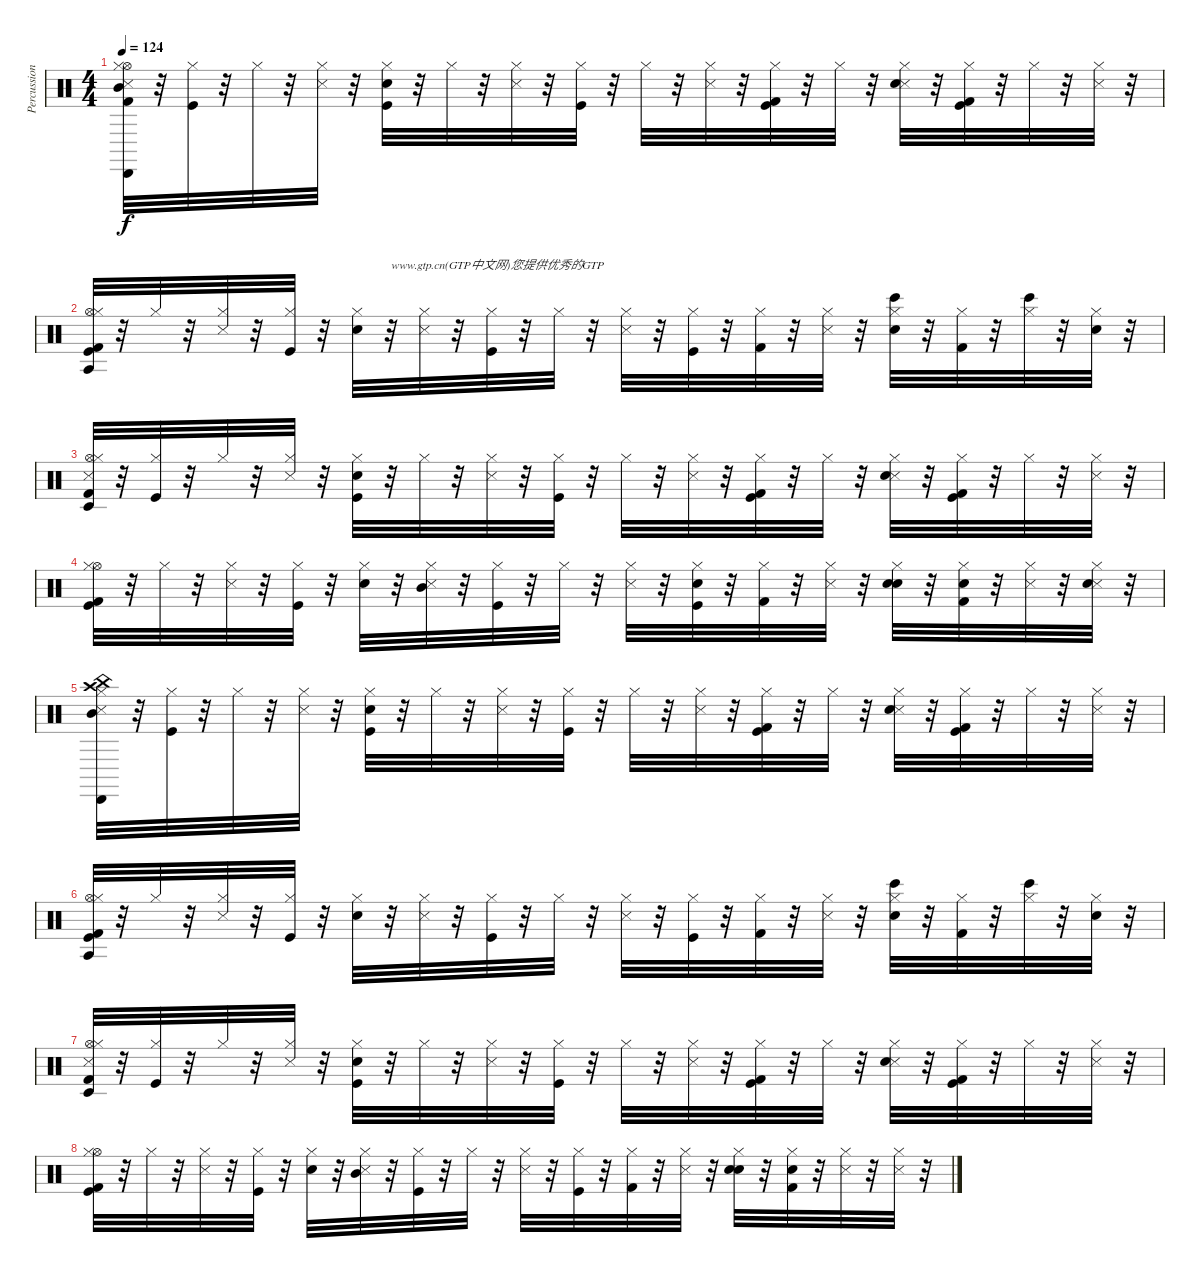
\track ("Percussions" "Percussion") {instrument percussion}
\staff {score}
\articulation defaults
\ts (4 4)
\tempo 124
\clef neutral
\ks c
("Mid Tom (hit)" "Cabasa (hit)" "Metronome (hit)" "Hi-Hat (open)" "Kick (hit) 2" "Hi-Hat (closed)").32{dy f} r.32 ("Kick (hit)" "Hi-Hat (closed)").32 r.32 "Hi-Hat (closed)".32 r.32 ("Metronome (hit)" "Hi-Hat (closed)").32 r.32 ("Kick (hit)" "Hi-Hat (closed)" "Electric Snare (hit)").32 r.32 "Hi-Hat (closed)".32 r.32 ("Metronome (hit)" "Hi-Hat (closed)").32 r.32 ("Kick (hit)" "Hi-Hat (closed)").32 r.32 "Hi-Hat (closed)".32 r.32 ("Metronome (hit)" "Hi-Hat (closed)").32 r.32 ("Kick (hit)" "Hi-Hat (closed)" "Kick (hit) 2").32 r.32 "Hi-Hat (closed)".32 r.32 ("Metronome (hit)" "Hi-Hat (closed)" "Electric Snare (hit)").32 r.32 ("Kick (hit)" "Kick (hit) 2" "Hi-Hat (closed)").32 r.32 "Hi-Hat (closed)".32 r.32 ("Metronome (hit)" "Hi-Hat (closed)").32 r.32 |
("Agogo tow (hit)" "Kick (hit)" "Hi-Hat (open)" "Kick (hit) 2" "Hi-Hat (closed)").32 r.32 "Hi-Hat (closed)".32 r.32 ("Metronome (hit)" "Hi-Hat (closed)").32 r.32 ("Kick (hit)" "Hi-Hat (closed)").32 r.32 ("Electric Snare (hit)" "Hi-Hat (closed)").32 r.32{txt "www.gtp.cn(GTP中文网)您提供优秀的GTP"} ("Metronome (hit)" "Hi-Hat (closed)").32 r.32 ("Kick (hit)" "Hi-Hat (closed)").32 r.32 "Hi-Hat (closed)".32 r.32 ("Metronome (hit)" "Hi-Hat (closed)").32 r.32 ("Kick (hit)" "Hi-Hat (closed)").32 r.32 ("Hi-Hat (closed)" "Kick (hit) 2").32 r.32 ("Metronome (hit)" "Hi-Hat (closed)").32 r.32 ("Bongo High (hit)" "Electric Snare (hit)" "Hi-Hat (closed)").32 r.32 ("Kick (hit) 2" "Hi-Hat (closed)").32 r.32 ("Bongo High (hit)" "Hi-Hat (closed)").32 r.32 ("Hi-Hat (closed)" "Electric Snare (hit)").32 r.32 |
("Timbale low (hit)" "Metronome (hit)" "Kick (hit) 2" "Hi-Hat (open)" "Hi-Hat (closed)").32 r.32 ("Kick (hit)" "Hi-Hat (closed)").32 r.32 "Hi-Hat (closed)".32 r.32 ("Metronome (hit)" "Hi-Hat (closed)").32 r.32 ("Kick (hit)" "Electric Snare (hit)" "Hi-Hat (closed)").32 r.32 "Hi-Hat (closed)".32 r.32 ("Metronome (hit)" "Hi-Hat (closed)").32 r.32 ("Kick (hit)" "Hi-Hat (closed)").32 r.32 "Hi-Hat (closed)".32 r.32 ("Metronome (hit)" "Hi-Hat (closed)").32 r.32 ("Kick (hit)" "Kick (hit) 2" "Hi-Hat (closed)").32 r.32 "Hi-Hat (closed)".32 r.32 ("Metronome (hit)" "Electric Snare (hit)" "Hi-Hat (closed)").32 r.32 ("Kick (hit)" "Kick (hit) 2" "Hi-Hat (closed)").32 r.32 "Hi-Hat (closed)".32 r.32 ("Metronome (hit)" "Hi-Hat (closed)").32 r.32 |
("Kick (hit)" "Hi-Hat (open)" "Kick (hit) 2" "Hi-Hat (closed)").32 r.32 "Hi-Hat (closed)".32 r.32 ("Metronome (hit)" "Hi-Hat (closed)").32 r.32 ("Kick (hit)" "Hi-Hat (closed)").32 r.32 ("Hi-Hat (closed)" "Electric Snare (hit)").32 r.32 ("Mid Tom (hit)" "Metronome (hit)" "Hi-Hat (closed)").32 r.32 ("Kick (hit)" "Hi-Hat (closed)").32 r.32 "Hi-Hat (closed)".32 r.32 ("Metronome (hit)" "Hi-Hat (closed)").32 r.32 ("Kick (hit)" "Electric Snare (hit)" "Hi-Hat (closed)").32 r.32 ("Kick (hit) 2" "Hi-Hat (closed)").32 r.32 ("Metronome (hit)" "Hi-Hat (closed)").32 r.32 ("Hand Clap (hit)" "Hi-Hat (closed)" "Electric Snare (hit)").32 r.32 ("Hand Clap (hit)" "Kick (hit) 2" "Hi-Hat (closed)").32 r.32 ("Snare (side stick) 3" "Hi-Hat (closed)").32 r.32 ("Snare (side stick) 3" "Electric Snare (hit)" "Hi-Hat (closed)").32 r.32 |
("Mid Tom (hit)" "Cabasa (hit)" "Metronome (hit)" "Crash high (hit)" "China (hit)" "Hi-Hat (closed)").32 r.32 ("Kick (hit)" "Hi-Hat (closed)").32 r.32 "Hi-Hat (closed)".32 r.32 ("Metronome (hit)" "Hi-Hat (closed)").32 r.32 ("Kick (hit)" "Hi-Hat (closed)" "Electric Snare (hit)").32 r.32 "Hi-Hat (closed)".32 r.32 ("Metronome (hit)" "Hi-Hat (closed)").32 r.32 ("Kick (hit)" "Hi-Hat (closed)").32 r.32 "Hi-Hat (closed)".32 r.32 ("Metronome (hit)" "Hi-Hat (closed)").32 r.32 ("Kick (hit)" "Hi-Hat (closed)" "Kick (hit) 2").32 r.32 "Hi-Hat (closed)".32 r.32 ("Metronome (hit)" "Hi-Hat (closed)" "Electric Snare (hit)").32 r.32 ("Kick (hit)" "Kick (hit) 2" "Hi-Hat (closed)").32 r.32 "Hi-Hat (closed)".32 r.32 ("Metronome (hit)" "Hi-Hat (closed)").32 r.32 |
("Agogo tow (hit)" "Kick (hit)" "Hi-Hat (open)" "Kick (hit) 2" "Hi-Hat (closed)").32 r.32 "Hi-Hat (closed)".32 r.32 ("Metronome (hit)" "Hi-Hat (closed)").32 r.32 ("Kick (hit)" "Hi-Hat (closed)").32 r.32 ("Electric Snare (hit)" "Hi-Hat (closed)").32 r.32 ("Metronome (hit)" "Hi-Hat (closed)").32 r.32 ("Kick (hit)" "Hi-Hat (closed)").32 r.32 "Hi-Hat (closed)".32 r.32 ("Metronome (hit)" "Hi-Hat (closed)").32 r.32 ("Kick (hit)" "Hi-Hat (closed)").32 r.32 ("Hi-Hat (closed)" "Kick (hit) 2").32 r.32 ("Metronome (hit)" "Hi-Hat (closed)").32 r.32 ("Bongo High (hit)" "Electric Snare (hit)" "Hi-Hat (closed)").32 r.32 ("Kick (hit) 2" "Hi-Hat (closed)").32 r.32 ("Bongo High (hit)" "Hi-Hat (closed)").32 r.32 ("Hi-Hat (closed)" "Electric Snare (hit)").32 r.32 |
("Timbale low (hit)" "Metronome (hit)" "Kick (hit) 2" "Hi-Hat (open)" "Hi-Hat (closed)").32 r.32 ("Kick (hit)" "Hi-Hat (closed)").32 r.32 "Hi-Hat (closed)".32 r.32 ("Metronome (hit)" "Hi-Hat (closed)").32 r.32 ("Kick (hit)" "Electric Snare (hit)" "Hi-Hat (closed)").32 r.32 "Hi-Hat (closed)".32 r.32 ("Metronome (hit)" "Hi-Hat (closed)").32 r.32 ("Kick (hit)" "Hi-Hat (closed)").32 r.32 "Hi-Hat (closed)".32 r.32 ("Metronome (hit)" "Hi-Hat (closed)").32 r.32 ("Kick (hit)" "Kick (hit) 2" "Hi-Hat (closed)").32 r.32 "Hi-Hat (closed)".32 r.32 ("Metronome (hit)" "Electric Snare (hit)" "Hi-Hat (closed)").32 r.32 ("Kick (hit)" "Kick (hit) 2" "Hi-Hat (closed)").32 r.32 "Hi-Hat (closed)".32 r.32 ("Metronome (hit)" "Hi-Hat (closed)").32 r.32 |
("Kick (hit)" "Hi-Hat (open)" "Kick (hit) 2" "Hi-Hat (closed)").32 r.32 "Hi-Hat (closed)".32 r.32 ("Metronome (hit)" "Hi-Hat (closed)").32 r.32 ("Kick (hit)" "Hi-Hat (closed)").32 r.32 ("Hi-Hat (closed)" "Electric Snare (hit)").32 r.32 ("Mid Tom (hit)" "Metronome (hit)" "Hi-Hat (closed)").32 r.32 ("Kick (hit)" "Hi-Hat (closed)").32 r.32 "Hi-Hat (closed)".32 r.32 ("Metronome (hit)" "Hi-Hat (closed)").32 r.32 ("Kick (hit)" "Hi-Hat (closed)").32 r.32 ("Kick (hit) 2" "Hi-Hat (closed)").32 r.32 ("Metronome (hit)" "Hi-Hat (closed)").32 r.32 ("Hand Clap (hit)" "Hi-Hat (closed)" "Electric Snare (hit)").32 r.32 ("Hand Clap (hit)" "Kick (hit) 2" "Hi-Hat (closed)").32 r.32 ("Snare (side stick) 3" "Hi-Hat (closed)").32 r.32 ("Snare (side stick) 3" "Hi-Hat (closed)").32 r.32
